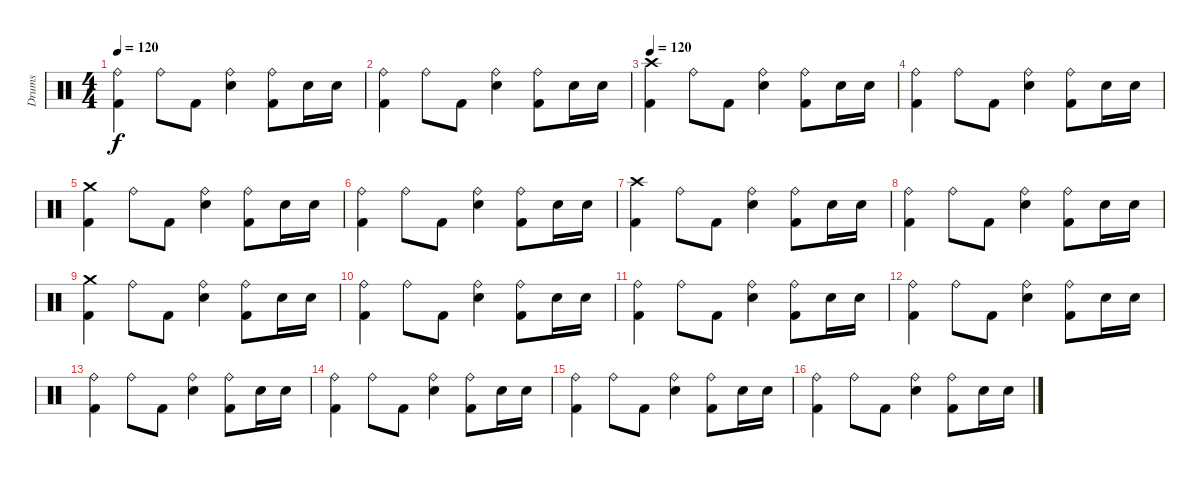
\track ("Drums" "Drums") {instrument percussion}
\staff {score}
\articulation defaults
\ts (4 4)
\tempo 120
\clef neutral
\ks c
("Ride (bell)" "Kick (hit) 2").4{dy f} "Ride (bell)".8 "Kick (hit) 2".8 ("Ride (bell)" "Snare (hit) 2").4 ("Ride (bell)" "Kick (hit) 2").8 "Snare (hit) 2".16 "Snare (hit) 2".16 |
("Ride (bell)" "Kick (hit) 2").4 "Ride (bell)".8 "Kick (hit) 2".8 ("Ride (bell)" "Snare (hit) 2").4 ("Ride (bell)" "Kick (hit) 2").8 "Snare (hit) 2".16 "Snare (hit) 2".16 |
\tempo 120
("Crash high (hit)" "Kick (hit) 2").4 "Ride (bell)".8 "Kick (hit) 2".8 ("Ride (bell)" "Snare (hit) 2").4 ("Ride (bell)" "Kick (hit) 2").8 "Snare (hit) 2".16 "Snare (hit) 2".16 |
("Ride (bell)" "Kick (hit) 2").4 "Ride (bell)".8 "Kick (hit) 2".8 ("Ride (bell)" "Snare (hit) 2").4 ("Ride (bell)" "Kick (hit) 2").8 "Snare (hit) 2".16 "Snare (hit) 2".16 |
("Crash medium (hit)" "Kick (hit) 2").4 "Ride (bell)".8 "Kick (hit) 2".8 ("Ride (bell)" "Snare (hit) 2").4 ("Ride (bell)" "Kick (hit) 2").8 "Snare (hit) 2".16 "Snare (hit) 2".16 |
("Ride (bell)" "Kick (hit) 2").4 "Ride (bell)".8 "Kick (hit) 2".8 ("Ride (bell)" "Snare (hit) 2").4 ("Ride (bell)" "Kick (hit) 2").8 "Snare (hit) 2".16 "Snare (hit) 2".16 |
("Crash high (hit)" "Kick (hit) 2").4 "Ride (bell)".8 "Kick (hit) 2".8 ("Ride (bell)" "Snare (hit) 2").4 ("Ride (bell)" "Kick (hit) 2").8 "Snare (hit) 2".16 "Snare (hit) 2".16 |
("Ride (bell)" "Kick (hit) 2").4 "Ride (bell)".8 "Kick (hit) 2".8 ("Ride (bell)" "Snare (hit) 2").4 ("Ride (bell)" "Kick (hit) 2").8 "Snare (hit) 2".16 "Snare (hit) 2".16 |
("Crash medium (hit)" "Kick (hit) 2").4 "Ride (bell)".8 "Kick (hit) 2".8 ("Ride (bell)" "Snare (hit) 2").4 ("Ride (bell)" "Kick (hit) 2").8 "Snare (hit) 2".16 "Snare (hit) 2".16 |
("Ride (bell)" "Kick (hit) 2").4 "Ride (bell)".8 "Kick (hit) 2".8 ("Ride (bell)" "Snare (hit) 2").4 ("Ride (bell)" "Kick (hit) 2").8 "Snare (hit) 2".16 "Snare (hit) 2".16 |
("Ride (bell)" "Kick (hit) 2").4 "Ride (bell)".8 "Kick (hit) 2".8 ("Ride (bell)" "Snare (hit) 2").4 ("Ride (bell)" "Kick (hit) 2").8 "Snare (hit) 2".16 "Snare (hit) 2".16 |
("Ride (bell)" "Kick (hit) 2").4 "Ride (bell)".8 "Kick (hit) 2".8 ("Ride (bell)" "Snare (hit) 2").4 ("Ride (bell)" "Kick (hit) 2").8 "Snare (hit) 2".16 "Snare (hit) 2".16 |
("Ride (bell)" "Kick (hit) 2").4 "Ride (bell)".8 "Kick (hit) 2".8 ("Ride (bell)" "Snare (hit) 2").4 ("Ride (bell)" "Kick (hit) 2").8 "Snare (hit) 2".16 "Snare (hit) 2".16 |
("Ride (bell)" "Kick (hit) 2").4 "Ride (bell)".8 "Kick (hit) 2".8 ("Ride (bell)" "Snare (hit) 2").4 ("Ride (bell)" "Kick (hit) 2").8 "Snare (hit) 2".16 "Snare (hit) 2".16 |
("Ride (bell)" "Kick (hit) 2").4 "Ride (bell)".8 "Kick (hit) 2".8 ("Ride (bell)" "Snare (hit) 2").4 ("Ride (bell)" "Kick (hit) 2").8 "Snare (hit) 2".16 "Snare (hit) 2".16 |
("Ride (bell)" "Kick (hit) 2").4 "Ride (bell)".8 "Kick (hit) 2".8 ("Ride (bell)" "Snare (hit) 2").4 ("Ride (bell)" "Kick (hit) 2").8 "Snare (hit) 2".16 "Snare (hit) 2".16
